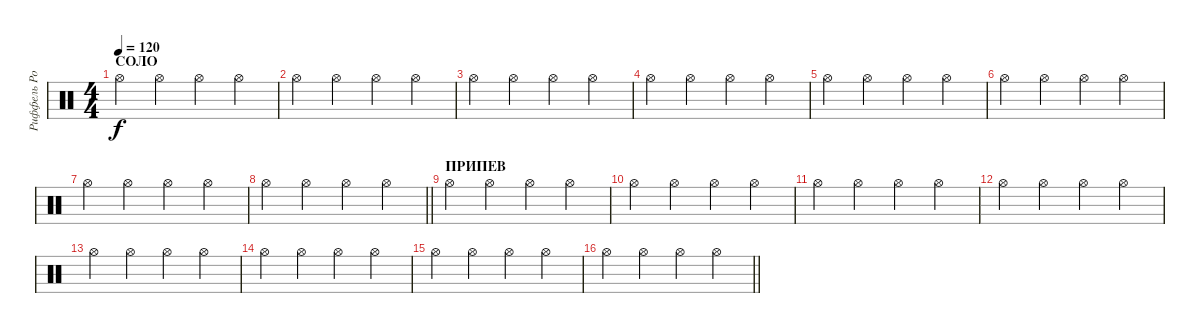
\track ("Риффель Роман(хэты)" "Риффель Ро") {instrument percussion}
\staff {score}
\articulation defaults
\ts (4 4)
\section ("" "СОЛО")
\tempo 120
\clef neutral
\ks c "Hi-Hat (open)".4{dy f} "Hi-Hat (open)".4 "Hi-Hat (open)".4 "Hi-Hat (open)".4
|
"Hi-Hat (open)".4 "Hi-Hat (open)".4 "Hi-Hat (open)".4 "Hi-Hat (open)".4 |
"Hi-Hat (open)".4 "Hi-Hat (open)".4 "Hi-Hat (open)".4 "Hi-Hat (open)".4 |
"Hi-Hat (open)".4 "Hi-Hat (open)".4 "Hi-Hat (open)".4 "Hi-Hat (open)".4 |
"Hi-Hat (open)".4 "Hi-Hat (open)".4 "Hi-Hat (open)".4 "Hi-Hat (open)".4 |
"Hi-Hat (open)".4 "Hi-Hat (open)".4 "Hi-Hat (open)".4 "Hi-Hat (open)".4 |
"Hi-Hat (open)".4 "Hi-Hat (open)".4 "Hi-Hat (open)".4 "Hi-Hat (open)".4 |
\barLineRight lightlight "Hi-Hat (open)".4 "Hi-Hat (open)".4 "Hi-Hat (open)".4 "Hi-Hat (open)".4
|
\section ("" "ПРИПЕВ")
"Hi-Hat (open)".4 "Hi-Hat (open)".4 "Hi-Hat (open)".4 "Hi-Hat (open)".4 |
"Hi-Hat (open)".4 "Hi-Hat (open)".4 "Hi-Hat (open)".4 "Hi-Hat (open)".4 |
"Hi-Hat (open)".4 "Hi-Hat (open)".4 "Hi-Hat (open)".4 "Hi-Hat (open)".4 |
"Hi-Hat (open)".4 "Hi-Hat (open)".4 "Hi-Hat (open)".4 "Hi-Hat (open)".4 |
"Hi-Hat (open)".4 "Hi-Hat (open)".4 "Hi-Hat (open)".4 "Hi-Hat (open)".4 |
"Hi-Hat (open)".4 "Hi-Hat (open)".4 "Hi-Hat (open)".4 "Hi-Hat (open)".4 |
"Hi-Hat (open)".4 "Hi-Hat (open)".4 "Hi-Hat (open)".4 "Hi-Hat (open)".4 |
\barLineRight lightlight "Hi-Hat (open)".4 "Hi-Hat (open)".4 "Hi-Hat (open)".4 "Hi-Hat (open)".4
